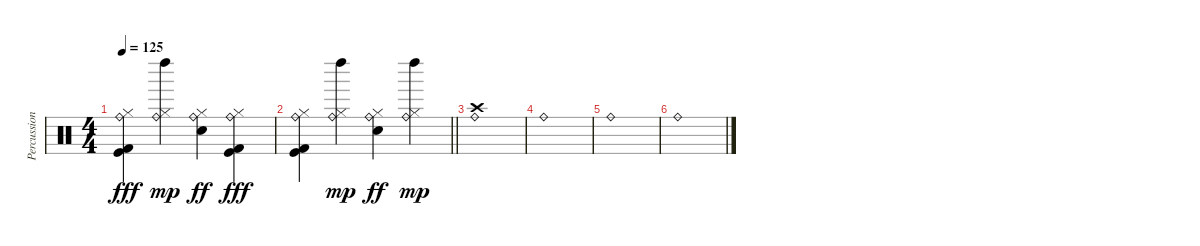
\track ("Percussion" "Percussion") {instrument percussion}
\staff {score}
\articulation defaults
\ts (4 4)
\tempo 125
\clef neutral
\ks c
("Hi-Hat (closed)" "Ride (bell)" "Kick (hit)" "Kick (hit) 2").4{dy fff} ("Hi-Hat (closed)" "Left Maraca (hit)" "Ride (bell)").4{dy mp} ("Hi-Hat (closed)" "Ride (bell)" "Snare (hit) 2").4{dy ff} ("Hi-Hat (closed)" "Ride (bell)" "Kick (hit)" "Kick (hit) 2").4{dy fff} |
\barLineRight lightlight
("Hi-Hat (closed)" "Ride (bell)" "Kick (hit)" "Kick (hit) 2").4 ("Hi-Hat (closed)" "Left Maraca (hit)" "Ride (bell)").4{dy mp} ("Hi-Hat (closed)" "Ride (bell)" "Snare (hit) 2").4{dy ff} ("Hi-Hat (closed)" "Left Maraca (hit)" "Ride (bell)").4{dy mp} |
("Crash high (hit)" "Ride (bell)").1 |
"Ride (bell)".1 |
"Ride (bell)".1 |
"Ride (bell)".1
